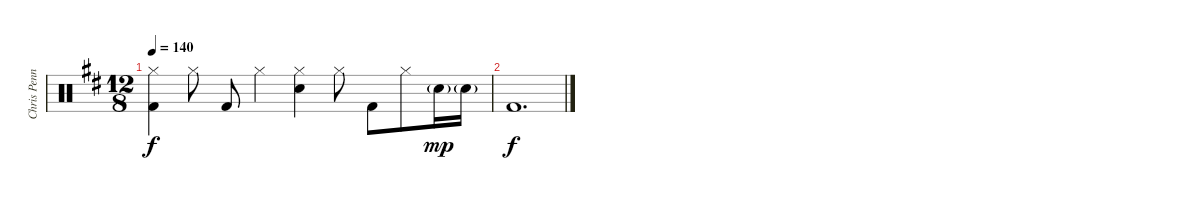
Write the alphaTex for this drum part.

\track ("Chris Pennie/Taylor Hawkins - Drums" "Chris Penn") {instrument percussion}
\staff {score}
\articulation defaults
\ts (12 8)
\tempo 140
\clef neutral
\ks bminor
("Hi-Hat (closed)" "Kick (hit) 2").4{dy f} "Hi-Hat (closed)".8 "Kick (hit) 2".8 "Hi-Hat (closed)".4 ("Hi-Hat (closed)" "Electric Snare (hit)").4 "Hi-Hat (closed)".8 "Kick (hit) 2".8 "Hi-Hat (closed)".8 "Electric Snare (hit)"{g}.16{dy mp} "Electric Snare (hit)"{g}.16 |
"Kick (hit) 2".1{d dy f}
